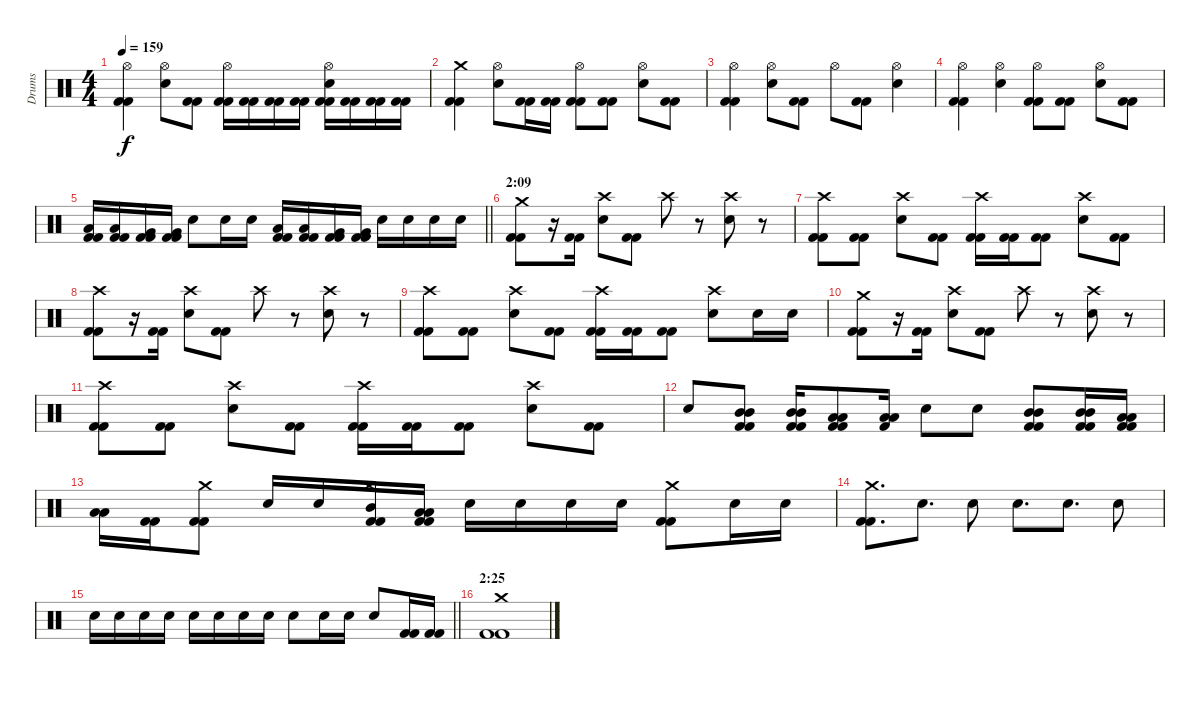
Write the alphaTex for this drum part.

\track ("Drums" "Drums") {instrument percussion}
\staff {score}
\articulation defaults
\ts (4 4)
\tempo 159
\clef neutral
\ks c
("Hi-Hat (open)" "Kick (hit) 2" "Kick (hit) 2").4{dy f} ("Hi-Hat (open)" "Electric Snare (hit)").8 ("Kick (hit) 2" "Kick (hit) 2").8 ("Hi-Hat (open)" "Kick (hit) 2" "Kick (hit) 2").16 ("Kick (hit) 2" "Kick (hit) 2").16 ("Kick (hit) 2" "Kick (hit) 2").16 ("Kick (hit) 2" "Kick (hit) 2").16 ("Hi-Hat (open)" "Electric Snare (hit)" "Kick (hit) 2" "Kick (hit) 2").16 ("Kick (hit) 2" "Kick (hit) 2").16 ("Kick (hit) 2" "Kick (hit) 2").16 ("Kick (hit) 2" "Kick (hit) 2").16 |
("Crash medium (hit)" "Kick (hit) 2" "Kick (hit) 2").4 ("Hi-Hat (open)" "Electric Snare (hit)").8 ("Kick (hit) 2" "Kick (hit) 2").16 ("Kick (hit) 2" "Kick (hit) 2").16 ("Hi-Hat (open)" "Kick (hit) 2" "Kick (hit) 2").8 ("Kick (hit) 2" "Kick (hit) 2").8 ("Hi-Hat (open)" "Electric Snare (hit)").8 ("Kick (hit) 2" "Kick (hit) 2").8 |
("Hi-Hat (open)" "Kick (hit) 2" "Kick (hit) 2").4 ("Hi-Hat (open)" "Electric Snare (hit)").8 ("Kick (hit) 2" "Kick (hit) 2").8 "Hi-Hat (open)".8 ("Kick (hit) 2" "Kick (hit) 2").8 ("Hi-Hat (open)" "Electric Snare (hit)").4 |
("Hi-Hat (open)" "Kick (hit) 2" "Kick (hit) 2").4 ("Hi-Hat (open)" "Electric Snare (hit)").4 ("Hi-Hat (open)" "Kick (hit) 2" "Kick (hit) 2").8 ("Kick (hit) 2" "Kick (hit) 2").8 ("Hi-Hat (open)" "Electric Snare (hit)").8 ("Kick (hit) 2" "Kick (hit) 2").8 |
\barLineRight lightlight
("Low Tom (hit)" "Kick (hit) 2" "Kick (hit) 2").16 ("Low Tom (hit)" "Kick (hit) 2" "Kick (hit) 2").16 ("Very Low Tom (hit)" "Kick (hit) 2" "Kick (hit) 2").16 ("Very Low Tom (hit)" "Kick (hit) 2" "Kick (hit) 2").16 "Electric Snare (hit)".8 "Electric Snare (hit)".16 "Electric Snare (hit)".16 ("Low Tom (hit)" "Kick (hit) 2" "Kick (hit) 2").16 ("Low Tom (hit)" "Kick (hit) 2" "Kick (hit) 2").16 ("Very Low Tom (hit)" "Kick (hit) 2" "Kick (hit) 2").16 ("Very Low Tom (hit)" "Kick (hit) 2" "Kick (hit) 2").16 "Electric Snare (hit)".16 "Electric Snare (hit)".16 "Electric Snare (hit)".16 "Electric Snare (hit)".16 |
\section ("" "2:09")
("Crash medium (hit)" "Kick (hit) 2" "Kick (hit) 2").8 r.16 ("Kick (hit) 2" "Kick (hit) 2").16 ("Crash high (hit)" "Electric Snare (hit)").8 ("Kick (hit) 2" "Kick (hit) 2").8 "Crash high (hit)".8 r.8 ("Crash high (hit)" "Electric Snare (hit)").8 r.8 |
("Crash high (hit)" "Kick (hit) 2" "Kick (hit) 2").8 ("Kick (hit) 2" "Kick (hit) 2").8 ("Crash high (hit)" "Electric Snare (hit)").8 ("Kick (hit) 2" "Kick (hit) 2").8 ("Crash high (hit)" "Kick (hit) 2" "Kick (hit) 2").16 ("Kick (hit) 2" "Kick (hit) 2").16 ("Kick (hit) 2" "Kick (hit) 2").8 ("Crash high (hit)" "Electric Snare (hit)").8 ("Kick (hit) 2" "Kick (hit) 2").8 |
("Crash high (hit)" "Kick (hit) 2" "Kick (hit) 2").8 r.16 ("Kick (hit) 2" "Kick (hit) 2").16 ("Crash high (hit)" "Electric Snare (hit)").8 ("Kick (hit) 2" "Kick (hit) 2").8 "Crash high (hit)".8 r.8 ("Crash high (hit)" "Electric Snare (hit)").8 r.8 |
("Crash high (hit)" "Kick (hit) 2" "Kick (hit) 2").8 ("Kick (hit) 2" "Kick (hit) 2").8 ("Crash high (hit)" "Electric Snare (hit)").8 ("Kick (hit) 2" "Kick (hit) 2").8 ("Crash high (hit)" "Kick (hit) 2" "Kick (hit) 2").16 ("Kick (hit) 2" "Kick (hit) 2").16 ("Kick (hit) 2" "Kick (hit) 2").8 ("Crash high (hit)" "Electric Snare (hit)").8 "Electric Snare (hit)".16 "Electric Snare (hit)".16 |
("Crash medium (hit)" "Kick (hit) 2" "Kick (hit) 2").8 r.16 ("Kick (hit) 2" "Kick (hit) 2").16 ("Crash high (hit)" "Electric Snare (hit)").8 ("Kick (hit) 2" "Kick (hit) 2").8 "Crash high (hit)".8 r.8 ("Crash high (hit)" "Electric Snare (hit)").8 r.8 |
("Crash high (hit)" "Kick (hit) 2" "Kick (hit) 2").8 ("Kick (hit) 2" "Kick (hit) 2").8 ("Crash high (hit)" "Electric Snare (hit)").8 ("Kick (hit) 2" "Kick (hit) 2").8 ("Crash high (hit)" "Kick (hit) 2" "Kick (hit) 2").16 ("Kick (hit) 2" "Kick (hit) 2").16 ("Kick (hit) 2" "Kick (hit) 2").8 ("Crash high (hit)" "Electric Snare (hit)").8 ("Kick (hit) 2" "Kick (hit) 2").8 |
"Electric Snare (hit)".8 ("Mid Tom (hit)" "Mid Tom (hit)" "Kick (hit) 2" "Kick (hit) 2").8 ("Mid Tom (hit)" "Mid Tom (hit)" "Kick (hit) 2" "Kick (hit) 2").16 ("Low Tom (hit)" "Low Tom (hit)" "Kick (hit) 2" "Kick (hit) 2").8 ("Low Tom (hit)" "Low Tom (hit)" "Kick (hit) 2").16 "Electric Snare (hit)".8 "Electric Snare (hit)".8 ("Mid Tom (hit)" "Mid Tom (hit)" "Kick (hit) 2" "Kick (hit) 2").8 ("Mid Tom (hit)" "Mid Tom (hit)" "Kick (hit) 2" "Kick (hit) 2").16 ("Low Tom (hit)" "Low Tom (hit)" "Kick (hit) 2" "Kick (hit) 2").16 |
("Low Tom (hit)" "Low Tom (hit)").16 ("Kick (hit) 2" "Kick (hit) 2").16 ("Crash medium (hit)" "Kick (hit) 2" "Kick (hit) 2").8 "Electric Snare (hit)".16 "Electric Snare (hit)".16 ("Crash medium (hit)" "Mid Tom (hit)" "Kick (hit) 2" "Kick (hit) 2").16 ("Low Tom (hit)" "Low Tom (hit)" "Kick (hit) 2" "Kick (hit) 2").16 "Electric Snare (hit)".16 "Electric Snare (hit)".16 "Electric Snare (hit)".16 "Electric Snare (hit)".16 ("Crash medium (hit)" "Kick (hit) 2" "Kick (hit) 2").8 "Electric Snare (hit)".16 "Electric Snare (hit)".16 |
("Crash medium (hit)" "Kick (hit) 2" "Kick (hit) 2").8{d} "Electric Snare (hit)".8{d} "Electric Snare (hit)".8 "Electric Snare (hit)".8{d} "Electric Snare (hit)".8{d} "Electric Snare (hit)".8 |
\barLineRight lightlight "Electric Snare (hit)".16 "Electric Snare (hit)".16 "Electric Snare (hit)".16 "Electric Snare (hit)".16 "Electric Snare (hit)".16 "Electric Snare (hit)".16 "Electric Snare (hit)".16 "Electric Snare (hit)".16 "Electric Snare (hit)".8 "Electric Snare (hit)".16 "Electric Snare (hit)".16 "Electric Snare (hit)".8
("Kick (hit) 2" "Kick (hit) 2").16 ("Kick (hit) 2" "Kick (hit) 2").16 |
\section ("" "2:25")
("Crash medium (hit)" "Kick (hit) 2" "Kick (hit) 2").1
